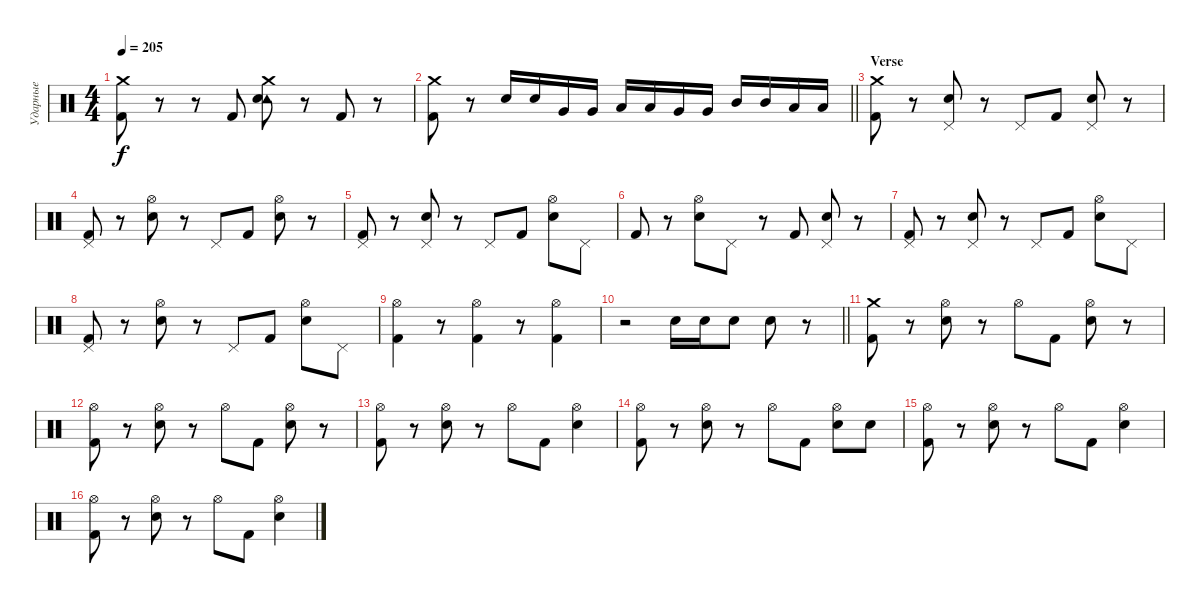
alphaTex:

\track ("Ударные" "Ударные") {instrument percussion}
\staff {score}
\articulation defaults
\ts (4 4)
\tempo 205
\clef neutral
\ks c
("Crash medium (hit)" "Kick (hit) 2").8{dy f} r.8 r.8 "Kick (hit) 2".8 ("Crash medium (hit)" "Tambourine (hit)" "Electric Snare (hit)").8 r.8 "Kick (hit) 2".8 r.8 |
\barLineRight lightlight
("Crash medium (hit)" "Kick (hit) 2").8 r.8 "Electric Snare (hit)".16 "Electric Snare (hit)".16 "Very Low Tom (hit)".16 "Very Low Tom (hit)".16 "Low Tom (hit)".16 "Low Tom (hit)".16 "Very Low Tom (hit)".16 "Very Low Tom (hit)".16 "Mid Tom (hit)".16 "Mid Tom (hit)".16 "Low Tom (hit)".16 "Low Tom (hit)".16 |
\section ("" "Verse")
("Crash medium (hit)" "Kick (hit) 2").8 r.8 ("Pedal Hi-Hat (hit)" "Electric Snare (hit)").8 r.8 "Pedal Hi-Hat (hit)".8 "Kick (hit) 2".8 ("Pedal Hi-Hat (hit)" "Electric Snare (hit)").8 r.8 |
("Pedal Hi-Hat (hit)" "Kick (hit) 2").8 r.8 ("Hi-Hat (open)" "Electric Snare (hit)").8 r.8 "Pedal Hi-Hat (hit)".8 "Kick (hit) 2".8 ("Hi-Hat (open)" "Electric Snare (hit)").8 r.8 |
("Pedal Hi-Hat (hit)" "Kick (hit) 2").8 r.8 ("Pedal Hi-Hat (hit)" "Electric Snare (hit)").8 r.8 "Pedal Hi-Hat (hit)".8 "Kick (hit) 2".8 ("Hi-Hat (open)" "Electric Snare (hit)").8 "Pedal Hi-Hat (hit)".8 |
"Kick (hit) 2".8 r.8 ("Hi-Hat (open)" "Electric Snare (hit)").8 "Pedal Hi-Hat (hit)".8 r.8 "Kick (hit) 2".8 ("Pedal Hi-Hat (hit)" "Electric Snare (hit)").8 r.8 |
("Pedal Hi-Hat (hit)" "Kick (hit) 2").8 r.8 ("Pedal Hi-Hat (hit)" "Electric Snare (hit)").8 r.8 "Pedal Hi-Hat (hit)".8 "Kick (hit) 2".8 ("Hi-Hat (open)" "Electric Snare (hit)").8 "Pedal Hi-Hat (hit)".8 |
("Pedal Hi-Hat (hit)" "Kick (hit) 2").8 r.8 ("Hi-Hat (open)" "Electric Snare (hit)").8 r.8 "Pedal Hi-Hat (hit)".8 "Kick (hit) 2".8 ("Hi-Hat (open)" "Electric Snare (hit)").8 "Pedal Hi-Hat (hit)".8 |
("Hi-Hat (open)" "Kick (hit) 2").4 r.8 ("Hi-Hat (open)" "Kick (hit) 2").4 r.8 ("Hi-Hat (open)" "Kick (hit) 2").4 |
\barLineRight lightlight
r.2 "Electric Snare (hit)".16 "Electric Snare (hit)".16 "Electric Snare (hit)".8 "Electric Snare (hit)".8 r.8 |
("Crash medium (hit)" "Kick (hit) 2").8 r.8 ("Hi-Hat (open)" "Electric Snare (hit)").8 r.8 "Hi-Hat (open)".8 "Kick (hit) 2".8 ("Hi-Hat (open)" "Electric Snare (hit)").8 r.8 |
("Hi-Hat (open)" "Kick (hit) 2").8 r.8 ("Hi-Hat (open)" "Electric Snare (hit)").8 r.8 "Hi-Hat (open)".8 "Kick (hit) 2".8 ("Hi-Hat (open)" "Electric Snare (hit)").8 r.8 |
("Hi-Hat (open)" "Kick (hit) 2").8 r.8 ("Hi-Hat (open)" "Electric Snare (hit)").8 r.8 "Hi-Hat (open)".8 "Kick (hit) 2".8 ("Hi-Hat (open)" "Electric Snare (hit)").4 |
("Hi-Hat (open)" "Kick (hit) 2").8 r.8 ("Hi-Hat (open)" "Electric Snare (hit)").8 r.8 "Hi-Hat (open)".8 "Kick (hit) 2".8 ("Hi-Hat (open)" "Electric Snare (hit)").8 "Electric Snare (hit)".8 |
("Hi-Hat (open)" "Kick (hit) 2").8 r.8 ("Hi-Hat (open)" "Electric Snare (hit)").8 r.8 "Hi-Hat (open)".8 "Kick (hit) 2".8 ("Hi-Hat (open)" "Electric Snare (hit)").4 |
("Hi-Hat (open)" "Kick (hit) 2").8 r.8 ("Hi-Hat (open)" "Electric Snare (hit)").8 r.8 "Hi-Hat (open)".8 "Kick (hit) 2".8 ("Hi-Hat (open)" "Electric Snare (hit)").4
